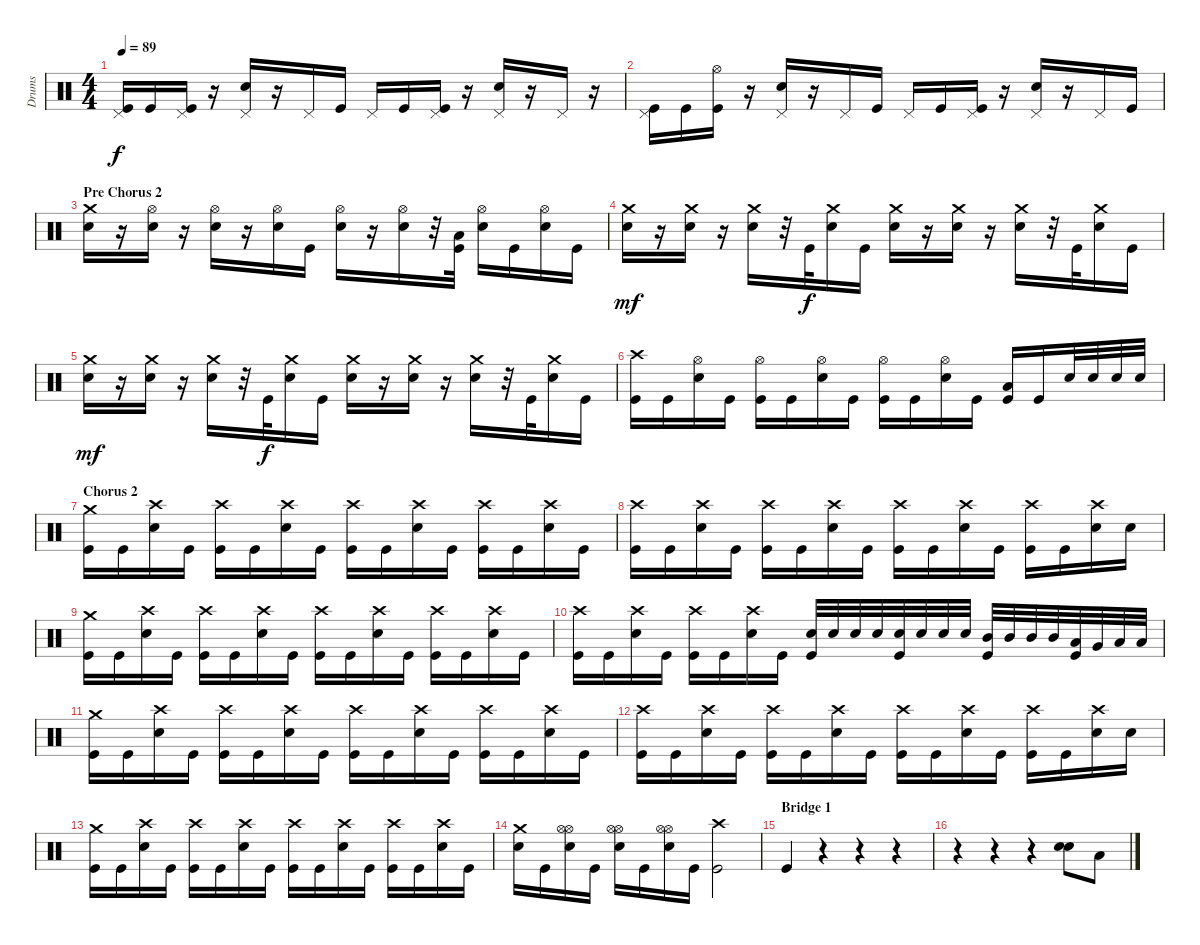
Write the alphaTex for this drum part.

\track ("Drums" "Drums") {instrument percussion}
\staff {score}
\articulation defaults
\ts (4 4)
\tempo 89
\clef neutral
\ks c
("Pedal Hi-Hat (hit)" "Kick (hit)").16{dy f} "Kick (hit)".16 ("Pedal Hi-Hat (hit)" "Kick (hit)").16 r.16 ("Pedal Hi-Hat (hit)" "Electric Snare (hit)").16 r.16 "Pedal Hi-Hat (hit)".16 "Kick (hit)".16 "Pedal Hi-Hat (hit)".16 "Kick (hit)".16 ("Pedal Hi-Hat (hit)" "Kick (hit)").16 r.16 ("Pedal Hi-Hat (hit)" "Electric Snare (hit)").16 r.16 "Pedal Hi-Hat (hit)".16 r.16 |
("Pedal Hi-Hat (hit)" "Kick (hit)").16 "Kick (hit)".16 ("Hi-Hat (open)" "Kick (hit)").16 r.16 ("Pedal Hi-Hat (hit)" "Electric Snare (hit)").16 r.16 "Pedal Hi-Hat (hit)".16 "Kick (hit)".16 "Pedal Hi-Hat (hit)".16 "Kick (hit)".16 ("Pedal Hi-Hat (hit)" "Kick (hit)").16 r.16 ("Pedal Hi-Hat (hit)" "Electric Snare (hit)").16 r.16 "Pedal Hi-Hat (hit)".16 "Kick (hit)".16 |
\section ("" "Pre Chorus 2")
("Crash medium (hit)" "Electric Snare (hit)").16 r.16 ("Hi-Hat (open)" "Electric Snare (hit)").16 r.16 ("Hi-Hat (open)" "Electric Snare (hit)").16 r.16 ("Hi-Hat (open)" "Electric Snare (hit)").16 "Kick (hit)".16 ("Hi-Hat (open)" "Electric Snare (hit)").16 r.16 ("Hi-Hat (open)" "Electric Snare (hit)").16 r.32 ("Kick (hit)" "Low Floor Tom (hit)").32 ("Hi-Hat (open)" "Electric Snare (hit)").16 "Kick (hit)".16 ("Hi-Hat (open)" "Electric Snare (hit)").16 "Kick (hit)".16 |
("Crash medium (hit)" "Electric Snare (hit)").16{dy mf} r.16 ("Crash medium (hit)" "Electric Snare (hit)").16 r.16 ("Crash medium (hit)" "Electric Snare (hit)").16 r.32 "Kick (hit)".32{dy f} ("Crash medium (hit)" "Electric Snare (hit)").16 "Kick (hit)".16 ("Crash medium (hit)" "Electric Snare (hit)").16 r.16 ("Crash medium (hit)" "Electric Snare (hit)").16 r.16 ("Crash medium (hit)" "Electric Snare (hit)").16 r.32 "Kick (hit)".32 ("Crash medium (hit)" "Electric Snare (hit)").16 "Kick (hit)".16 |
("Crash medium (hit)" "Electric Snare (hit)").16{dy mf} r.16 ("Crash medium (hit)" "Electric Snare (hit)").16 r.16 ("Crash medium (hit)" "Electric Snare (hit)").16 r.32 "Kick (hit)".32{dy f} ("Crash medium (hit)" "Electric Snare (hit)").16 "Kick (hit)".16 ("Crash medium (hit)" "Electric Snare (hit)").16 r.16 ("Crash medium (hit)" "Electric Snare (hit)").16 r.16 ("Crash medium (hit)" "Electric Snare (hit)").16 r.32 "Kick (hit)".32 ("Crash medium (hit)" "Electric Snare (hit)").16 "Kick (hit)".16 |
("Crash high (hit)" "Kick (hit)").16 "Kick (hit)".16 ("Hi-Hat (open)" "Electric Snare (hit)").16 "Kick (hit)".16 ("Hi-Hat (open)" "Kick (hit)").16 "Kick (hit)".16 ("Hi-Hat (open)" "Electric Snare (hit)").16 "Kick (hit)".16 ("Hi-Hat (open)" "Kick (hit)").16 "Kick (hit)".16 ("Hi-Hat (open)" "Electric Snare (hit)").16 "Kick (hit)".16 ("Kick (hit)" "Low Floor Tom (hit)").16 "Kick (hit)".16 "Electric Snare (hit)".32 "Electric Snare (hit)".32 "Electric Snare (hit)".32 "Electric Snare (hit)".32 |
\section ("" "Chorus 2")
("Crash medium (hit)" "Kick (hit)").16 "Kick (hit)".16 ("Crash high (hit)" "Electric Snare (hit)").16 "Kick (hit)".16 ("Crash high (hit)" "Kick (hit)").16 "Kick (hit)".16 ("Crash high (hit)" "Electric Snare (hit)").16 "Kick (hit)".16 ("Crash high (hit)" "Kick (hit)").16 "Kick (hit)".16 ("Crash high (hit)" "Electric Snare (hit)").16 "Kick (hit)".16 ("Crash high (hit)" "Kick (hit)").16 "Kick (hit)".16 ("Crash high (hit)" "Electric Snare (hit)").16 "Kick (hit)".16 |
("Crash high (hit)" "Kick (hit)").16 "Kick (hit)".16 ("Crash high (hit)" "Electric Snare (hit)").16 "Kick (hit)".16 ("Crash high (hit)" "Kick (hit)").16 "Kick (hit)".16 ("Crash high (hit)" "Electric Snare (hit)").16 "Kick (hit)".16 ("Crash high (hit)" "Kick (hit)").16 "Kick (hit)".16 ("Crash high (hit)" "Electric Snare (hit)").16 "Kick (hit)".16 ("Crash high (hit)" "Kick (hit)").16 "Kick (hit)".16 ("Crash high (hit)" "Electric Snare (hit)").16 "Electric Snare (hit)".16 |
("Crash medium (hit)" "Kick (hit)").16 "Kick (hit)".16 ("Crash high (hit)" "Electric Snare (hit)").16 "Kick (hit)".16 ("Crash high (hit)" "Kick (hit)").16 "Kick (hit)".16 ("Crash high (hit)" "Electric Snare (hit)").16 "Kick (hit)".16 ("Crash high (hit)" "Kick (hit)").16 "Kick (hit)".16 ("Crash high (hit)" "Electric Snare (hit)").16 "Kick (hit)".16 ("Crash high (hit)" "Kick (hit)").16 "Kick (hit)".16 ("Crash high (hit)" "Electric Snare (hit)").16 "Kick (hit)".16 |
("Crash high (hit)" "Kick (hit)").16 "Kick (hit)".16 ("Crash high (hit)" "Electric Snare (hit)").16 "Kick (hit)".16 ("Crash high (hit)" "Kick (hit)").16 "Kick (hit)".16 ("Crash high (hit)" "Electric Snare (hit)").16 "Kick (hit)".16 ("Electric Snare (hit)" "Kick (hit)").32 "Electric Snare (hit)".32 "Electric Snare (hit)".32 "Electric Snare (hit)".32 ("Electric Snare (hit)" "Kick (hit)").32 "Electric Snare (hit)".32 "Electric Snare (hit)".32 "Electric Snare (hit)".32 ("Mid Tom (hit)" "Kick (hit)").32 "Mid Tom (hit)".32 "Mid Tom (hit)".32 "Mid Tom (hit)".32 ("Low Tom (hit)" "Kick (hit)").32 "Very Low Tom (hit)".32 "Low Floor Tom (hit)".32 "Low Floor Tom (hit)".32 |
("Crash medium (hit)" "Kick (hit)").16 "Kick (hit)".16 ("Crash high (hit)" "Electric Snare (hit)").16 "Kick (hit)".16 ("Crash high (hit)" "Kick (hit)").16 "Kick (hit)".16 ("Crash high (hit)" "Electric Snare (hit)").16 "Kick (hit)".16 ("Crash high (hit)" "Kick (hit)").16 "Kick (hit)".16 ("Crash high (hit)" "Electric Snare (hit)").16 "Kick (hit)".16 ("Crash high (hit)" "Kick (hit)").16 "Kick (hit)".16 ("Crash high (hit)" "Electric Snare (hit)").16 "Kick (hit)".16 |
("Crash high (hit)" "Kick (hit)").16 "Kick (hit)".16 ("Crash high (hit)" "Electric Snare (hit)").16 "Kick (hit)".16 ("Crash high (hit)" "Kick (hit)").16 "Kick (hit)".16 ("Crash high (hit)" "Electric Snare (hit)").16 "Kick (hit)".16 ("Crash high (hit)" "Kick (hit)").16 "Kick (hit)".16 ("Crash high (hit)" "Electric Snare (hit)").16 "Kick (hit)".16 ("Crash high (hit)" "Kick (hit)").16 "Kick (hit)".16 ("Crash high (hit)" "Electric Snare (hit)").16 "Electric Snare (hit)".16 |
("Crash medium (hit)" "Kick (hit)").16 "Kick (hit)".16 ("Crash high (hit)" "Electric Snare (hit)").16 "Kick (hit)".16 ("Crash high (hit)" "Kick (hit)").16 "Kick (hit)".16 ("Crash high (hit)" "Electric Snare (hit)").16 "Kick (hit)".16 ("Crash high (hit)" "Kick (hit)").16 "Kick (hit)".16 ("Crash high (hit)" "Electric Snare (hit)").16 "Kick (hit)".16 ("Crash high (hit)" "Kick (hit)").16 "Kick (hit)".16 ("Crash high (hit)" "Electric Snare (hit)").16 "Kick (hit)".16 |
("Crash medium (hit)" "Electric Snare (hit)").16 "Kick (hit)".16 ("Hi-Hat (open)" "Electric Snare (hit)" "Hi-Hat (open)").16 "Kick (hit)".16 ("Hi-Hat (open)" "Electric Snare (hit)" "Hi-Hat (open)").16 "Kick (hit)".16 ("Hi-Hat (open)" "Electric Snare (hit)" "Hi-Hat (open)").16 "Kick (hit)".16 ("Crash high (hit)" "Kick (hit)").2 |
\section ("" "Bridge 1")
"Kick (hit)".4 r.4 r.4 r.4 |
r.4 r.4 r.4 ("Electric Snare (hit)" "Electric Snare (hit)").8 "Low Tom (hit)".8
